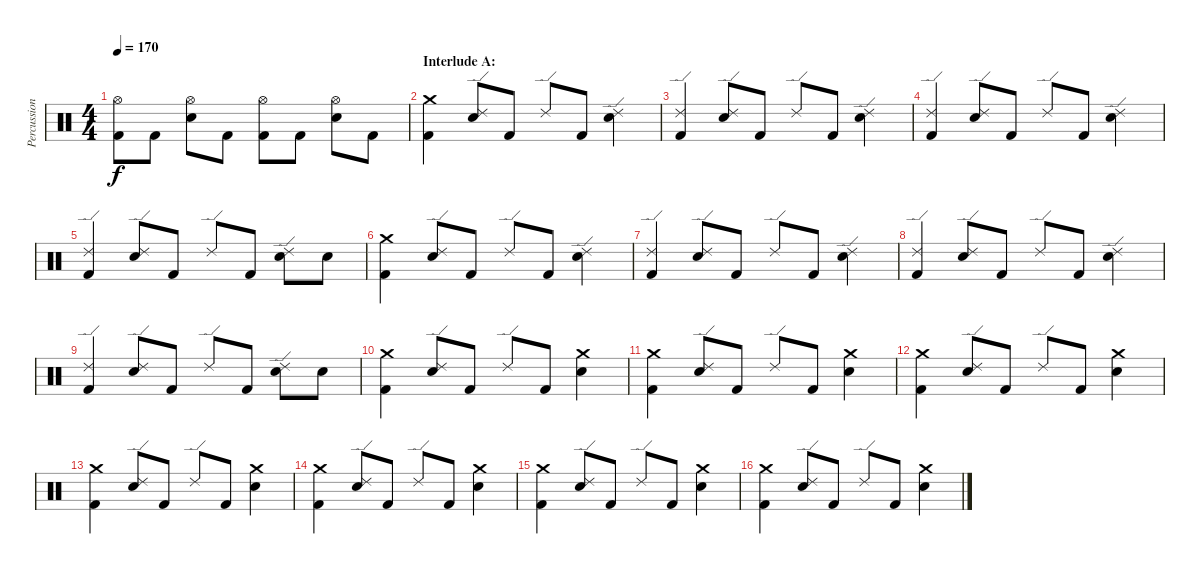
\track ("Percussion" "Percussion") {instrument percussion}
\staff {score}
\articulation defaults
\ts (4 4)
\tempo 170
\clef neutral
\ks c
("Hi-Hat (open)" "Kick (hit) 2").8{dy f} "Kick (hit) 2".8 ("Hi-Hat (open)" "Snare (hit) 2").8 "Kick (hit) 2".8 ("Hi-Hat (open)" "Kick (hit) 2").8 "Kick (hit) 2".8 ("Hi-Hat (open)" "Snare (hit) 2").8 "Kick (hit) 2".8 |
\section ("" "Interlude A:")
("Crash medium (hit)" "Kick (hit) 2").4 ("Ride (edge) 2" "Snare (hit) 2").8 "Kick (hit) 2".8 "Ride (edge) 2".8 "Kick (hit) 2".8 ("Ride (edge) 2" "Snare (hit) 2").4 |
("Ride (edge) 2" "Kick (hit) 2").4 ("Ride (edge) 2" "Snare (hit) 2").8 "Kick (hit) 2".8 "Ride (edge) 2".8 "Kick (hit) 2".8 ("Ride (edge) 2" "Snare (hit) 2").4 |
("Ride (edge) 2" "Kick (hit) 2").4 ("Ride (edge) 2" "Snare (hit) 2").8 "Kick (hit) 2".8 "Ride (edge) 2".8 "Kick (hit) 2".8 ("Ride (edge) 2" "Snare (hit) 2").4 |
("Ride (edge) 2" "Kick (hit) 2").4 ("Ride (edge) 2" "Snare (hit) 2").8 "Kick (hit) 2".8 "Ride (edge) 2".8 "Kick (hit) 2".8 ("Ride (edge) 2" "Snare (hit) 2").8 "Snare (hit) 2".8 |
("Crash medium (hit)" "Kick (hit) 2").4 ("Ride (edge) 2" "Snare (hit) 2").8 "Kick (hit) 2".8 "Ride (edge) 2".8 "Kick (hit) 2".8 ("Ride (edge) 2" "Snare (hit) 2").4 |
("Ride (edge) 2" "Kick (hit) 2").4 ("Ride (edge) 2" "Snare (hit) 2").8 "Kick (hit) 2".8 "Ride (edge) 2".8 "Kick (hit) 2".8 ("Ride (edge) 2" "Snare (hit) 2").4 |
("Ride (edge) 2" "Kick (hit) 2").4 ("Ride (edge) 2" "Snare (hit) 2").8 "Kick (hit) 2".8 "Ride (edge) 2".8 "Kick (hit) 2".8 ("Ride (edge) 2" "Snare (hit) 2").4 |
("Ride (edge) 2" "Kick (hit) 2").4 ("Ride (edge) 2" "Snare (hit) 2").8 "Kick (hit) 2".8 "Ride (edge) 2".8 "Kick (hit) 2".8 ("Ride (edge) 2" "Snare (hit) 2").8 "Snare (hit) 2".8 |
("Crash medium (hit)" "Kick (hit) 2").4 ("Ride (edge) 2" "Snare (hit) 2").8 "Kick (hit) 2".8 "Ride (edge) 2".8 "Kick (hit) 2".8 ("Crash medium (hit)" "Snare (hit) 2").4 |
("Crash medium (hit)" "Kick (hit) 2").4 ("Ride (edge) 2" "Snare (hit) 2").8 "Kick (hit) 2".8 "Ride (edge) 2".8 "Kick (hit) 2".8 ("Crash medium (hit)" "Snare (hit) 2").4 |
("Crash medium (hit)" "Kick (hit) 2").4 ("Ride (edge) 2" "Snare (hit) 2").8 "Kick (hit) 2".8 "Ride (edge) 2".8 "Kick (hit) 2".8 ("Crash medium (hit)" "Snare (hit) 2").4 |
("Crash medium (hit)" "Kick (hit) 2").4 ("Ride (edge) 2" "Snare (hit) 2").8 "Kick (hit) 2".8 "Ride (edge) 2".8 "Kick (hit) 2".8 ("Crash medium (hit)" "Snare (hit) 2").4 |
("Crash medium (hit)" "Kick (hit) 2").4 ("Ride (edge) 2" "Snare (hit) 2").8 "Kick (hit) 2".8 "Ride (edge) 2".8 "Kick (hit) 2".8 ("Crash medium (hit)" "Snare (hit) 2").4 |
("Crash medium (hit)" "Kick (hit) 2").4 ("Ride (edge) 2" "Snare (hit) 2").8 "Kick (hit) 2".8 "Ride (edge) 2".8 "Kick (hit) 2".8 ("Crash medium (hit)" "Snare (hit) 2").4 |
("Crash medium (hit)" "Kick (hit) 2").4 ("Ride (edge) 2" "Snare (hit) 2").8 "Kick (hit) 2".8 "Ride (edge) 2".8 "Kick (hit) 2".8 ("Crash medium (hit)" "Snare (hit) 2").4
